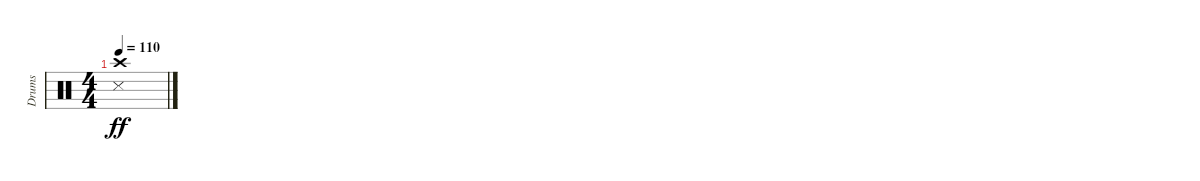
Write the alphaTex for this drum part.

\track ("Drums" "Drums") {instrument percussion}
\staff {score}
\articulation defaults
\ts (4 4)
\tempo 110
\clef neutral
\ks c
("Snare (side stick) 3" "Crash high (hit)").1{dy ff}
